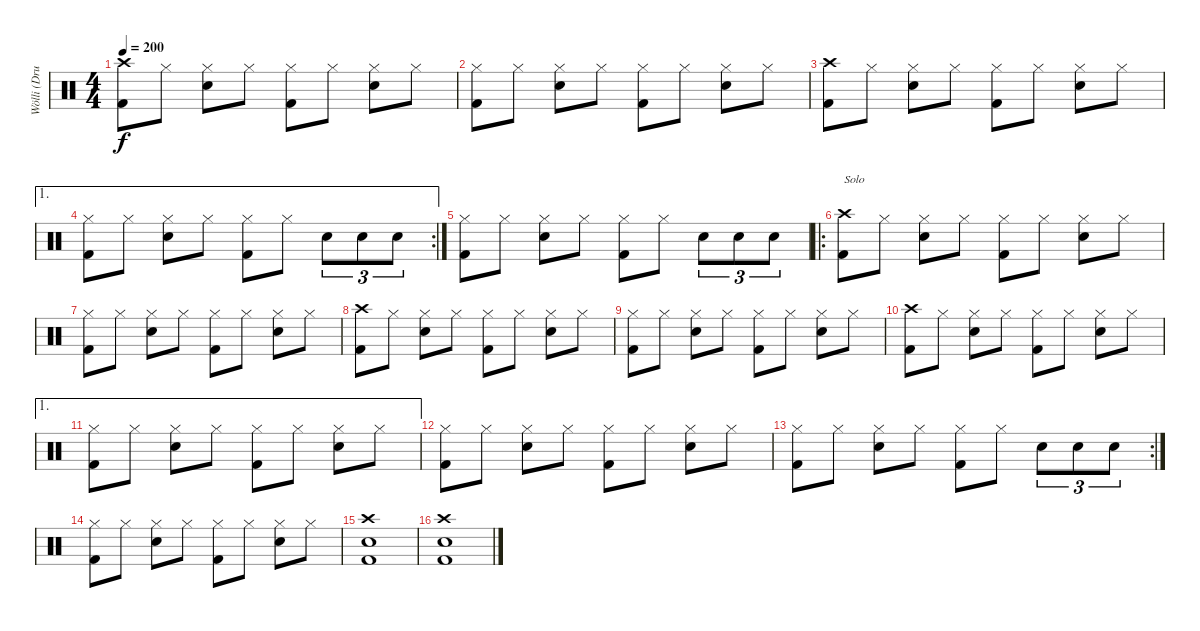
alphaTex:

\track ("Wölli (Drums)" "Wölli (Dru") {instrument percussion}
\staff {score}
\articulation defaults
\ts (4 4)
\tempo 200
\clef neutral
\ks c
("Crash high (hit)" "Kick (hit) 2").8{dy f} "Hi-Hat (closed)".8 ("Hi-Hat (closed)" "Snare (hit) 2").8 "Hi-Hat (closed)".8 ("Hi-Hat (closed)" "Kick (hit) 2").8 "Hi-Hat (closed)".8 ("Hi-Hat (closed)" "Snare (hit) 2").8 "Hi-Hat (closed)".8 |
("Hi-Hat (closed)" "Kick (hit) 2").8 "Hi-Hat (closed)".8 ("Hi-Hat (closed)" "Snare (hit) 2").8 "Hi-Hat (closed)".8 ("Hi-Hat (closed)" "Kick (hit) 2").8 "Hi-Hat (closed)".8 ("Hi-Hat (closed)" "Snare (hit) 2").8 "Hi-Hat (closed)".8 |
("Crash high (hit)" "Kick (hit) 2").8 "Hi-Hat (closed)".8 ("Hi-Hat (closed)" "Snare (hit) 2").8 "Hi-Hat (closed)".8 ("Hi-Hat (closed)" "Kick (hit) 2").8 "Hi-Hat (closed)".8 ("Hi-Hat (closed)" "Snare (hit) 2").8 "Hi-Hat (closed)".8 |
\ae 1
\rc 2
("Hi-Hat (closed)" "Kick (hit) 2").8 "Hi-Hat (closed)".8 ("Hi-Hat (closed)" "Snare (hit) 2").8 "Hi-Hat (closed)".8 ("Hi-Hat (closed)" "Kick (hit) 2").8 "Hi-Hat (closed)".8 "Snare (hit) 2".8{tu (3 2)} "Snare (hit) 2".8{tu (3 2)} "Snare (hit) 2".8{tu (3 2)} |
("Hi-Hat (closed)" "Kick (hit) 2").8 "Hi-Hat (closed)".8 ("Hi-Hat (closed)" "Snare (hit) 2").8 "Hi-Hat (closed)".8 ("Hi-Hat (closed)" "Kick (hit) 2").8 "Hi-Hat (closed)".8 "Snare (hit) 2".8{tu (3 2)} "Snare (hit) 2".8{tu (3 2)} "Snare (hit) 2".8{tu (3 2)} |
\ro
("Crash high (hit)" "Kick (hit) 2").8{txt "Solo"} "Hi-Hat (closed)".8 ("Hi-Hat (closed)" "Snare (hit) 2").8 "Hi-Hat (closed)".8 ("Hi-Hat (closed)" "Kick (hit) 2").8 "Hi-Hat (closed)".8 ("Hi-Hat (closed)" "Snare (hit) 2").8 "Hi-Hat (closed)".8 |
("Hi-Hat (closed)" "Kick (hit) 2").8 "Hi-Hat (closed)".8 ("Hi-Hat (closed)" "Snare (hit) 2").8 "Hi-Hat (closed)".8 ("Hi-Hat (closed)" "Kick (hit) 2").8 "Hi-Hat (closed)".8 ("Hi-Hat (closed)" "Snare (hit) 2").8 "Hi-Hat (closed)".8 |
("Crash high (hit)" "Kick (hit) 2").8 "Hi-Hat (closed)".8 ("Hi-Hat (closed)" "Snare (hit) 2").8 "Hi-Hat (closed)".8 ("Hi-Hat (closed)" "Kick (hit) 2").8 "Hi-Hat (closed)".8 ("Hi-Hat (closed)" "Snare (hit) 2").8 "Hi-Hat (closed)".8 |
("Hi-Hat (closed)" "Kick (hit) 2").8 "Hi-Hat (closed)".8 ("Hi-Hat (closed)" "Snare (hit) 2").8 "Hi-Hat (closed)".8 ("Hi-Hat (closed)" "Kick (hit) 2").8 "Hi-Hat (closed)".8 ("Hi-Hat (closed)" "Snare (hit) 2").8 "Hi-Hat (closed)".8 |
("Crash high (hit)" "Kick (hit) 2").8 "Hi-Hat (closed)".8 ("Hi-Hat (closed)" "Snare (hit) 2").8 "Hi-Hat (closed)".8 ("Hi-Hat (closed)" "Kick (hit) 2").8 "Hi-Hat (closed)".8 ("Hi-Hat (closed)" "Snare (hit) 2").8 "Hi-Hat (closed)".8 |
\ae 1
("Hi-Hat (closed)" "Kick (hit) 2").8 "Hi-Hat (closed)".8 ("Hi-Hat (closed)" "Snare (hit) 2").8 "Hi-Hat (closed)".8 ("Hi-Hat (closed)" "Kick (hit) 2").8 "Hi-Hat (closed)".8 ("Hi-Hat (closed)" "Snare (hit) 2").8 "Hi-Hat (closed)".8 |
("Hi-Hat (closed)" "Kick (hit) 2").8 "Hi-Hat (closed)".8 ("Hi-Hat (closed)" "Snare (hit) 2").8 "Hi-Hat (closed)".8 ("Hi-Hat (closed)" "Kick (hit) 2").8 "Hi-Hat (closed)".8 ("Hi-Hat (closed)" "Snare (hit) 2").8 "Hi-Hat (closed)".8 |
\rc 2
("Hi-Hat (closed)" "Kick (hit) 2").8 "Hi-Hat (closed)".8 ("Hi-Hat (closed)" "Snare (hit) 2").8 "Hi-Hat (closed)".8 ("Hi-Hat (closed)" "Kick (hit) 2").8 "Hi-Hat (closed)".8 "Snare (hit) 2".8{tu (3 2)} "Snare (hit) 2".8{tu (3 2)} "Snare (hit) 2".8{tu (3 2)} |
("Hi-Hat (closed)" "Kick (hit) 2").8 "Hi-Hat (closed)".8 ("Hi-Hat (closed)" "Snare (hit) 2").8 "Hi-Hat (closed)".8 ("Hi-Hat (closed)" "Kick (hit) 2").8 "Hi-Hat (closed)".8 ("Hi-Hat (closed)" "Snare (hit) 2").8 "Hi-Hat (closed)".8 |
("Crash high (hit)" "Snare (hit) 2" "Kick (hit) 2").1 |
("Crash high (hit)" "Snare (hit) 2" "Kick (hit) 2").1
